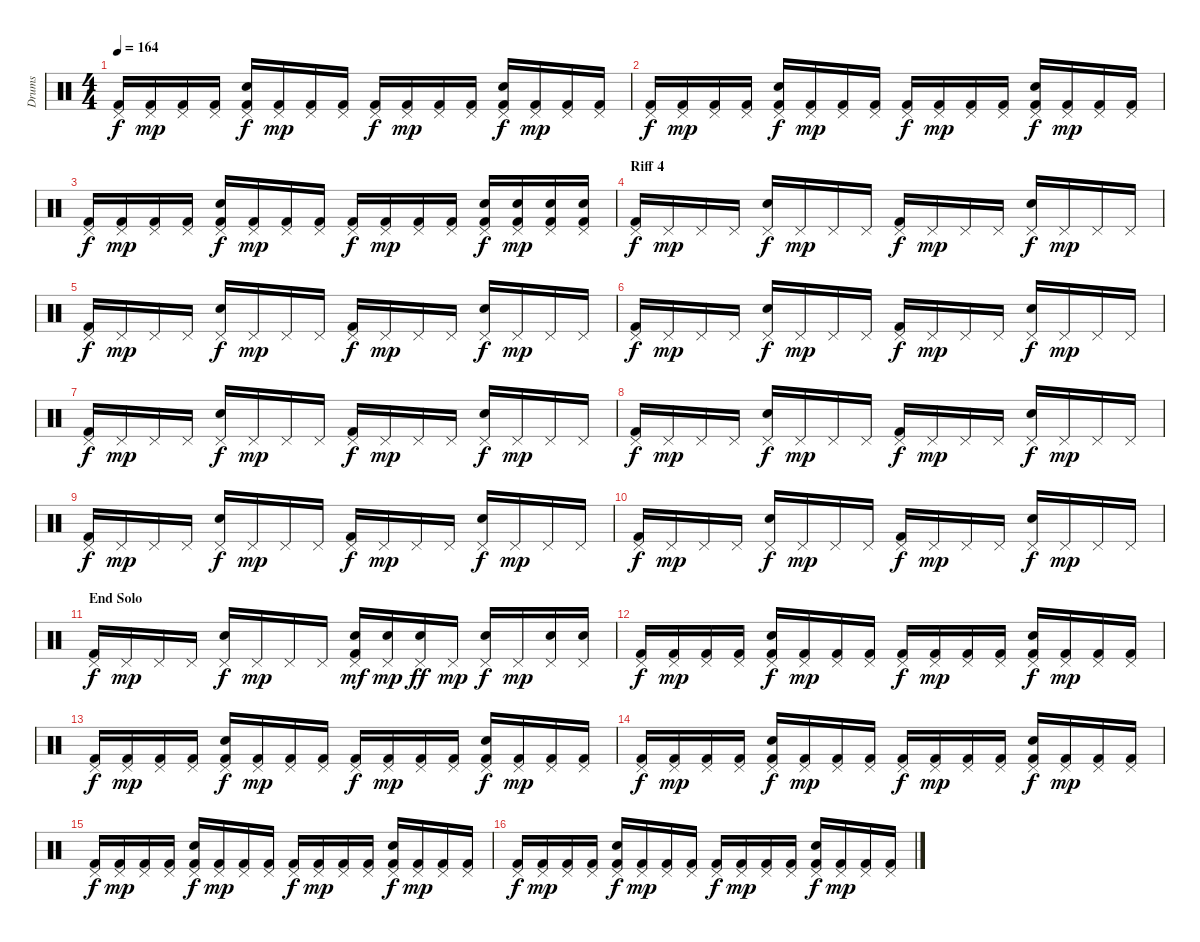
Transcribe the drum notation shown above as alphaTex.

\track ("Drums" "Drums") {instrument percussion}
\staff {score}
\articulation defaults
\ts (4 4)
\tempo 164
\clef neutral
\ks c
("Pedal Hi-Hat (hit)" "Kick (hit) 2").16{dy f} ("Pedal Hi-Hat (hit)" "Kick (hit) 2").16{dy mp} ("Pedal Hi-Hat (hit)" "Kick (hit) 2").16 ("Pedal Hi-Hat (hit)" "Kick (hit) 2").16 ("Pedal Hi-Hat (hit)" "Snare (hit) 2" "Kick (hit) 2").16{dy f} ("Pedal Hi-Hat (hit)" "Kick (hit) 2").16{dy mp} ("Pedal Hi-Hat (hit)" "Kick (hit) 2").16 ("Pedal Hi-Hat (hit)" "Kick (hit) 2").16 ("Pedal Hi-Hat (hit)" "Kick (hit) 2").16{dy f} ("Pedal Hi-Hat (hit)" "Kick (hit) 2").16{dy mp} ("Pedal Hi-Hat (hit)" "Kick (hit) 2").16 ("Pedal Hi-Hat (hit)" "Kick (hit) 2").16 ("Pedal Hi-Hat (hit)" "Snare (hit) 2" "Kick (hit) 2").16{dy f} ("Pedal Hi-Hat (hit)" "Kick (hit) 2").16{dy mp} ("Pedal Hi-Hat (hit)" "Kick (hit) 2").16 ("Pedal Hi-Hat (hit)" "Kick (hit) 2").16 |
("Pedal Hi-Hat (hit)" "Kick (hit) 2").16{dy f} ("Pedal Hi-Hat (hit)" "Kick (hit) 2").16{dy mp} ("Pedal Hi-Hat (hit)" "Kick (hit) 2").16 ("Pedal Hi-Hat (hit)" "Kick (hit) 2").16 ("Pedal Hi-Hat (hit)" "Snare (hit) 2" "Kick (hit) 2").16{dy f} ("Pedal Hi-Hat (hit)" "Kick (hit) 2").16{dy mp} ("Pedal Hi-Hat (hit)" "Kick (hit) 2").16 ("Pedal Hi-Hat (hit)" "Kick (hit) 2").16 ("Pedal Hi-Hat (hit)" "Kick (hit) 2").16{dy f} ("Pedal Hi-Hat (hit)" "Kick (hit) 2").16{dy mp} ("Pedal Hi-Hat (hit)" "Kick (hit) 2").16 ("Pedal Hi-Hat (hit)" "Kick (hit) 2").16 ("Pedal Hi-Hat (hit)" "Snare (hit) 2" "Kick (hit) 2").16{dy f} ("Pedal Hi-Hat (hit)" "Kick (hit) 2").16{dy mp} ("Pedal Hi-Hat (hit)" "Kick (hit) 2").16 ("Pedal Hi-Hat (hit)" "Kick (hit) 2").16 |
("Pedal Hi-Hat (hit)" "Kick (hit) 2").16{dy f} ("Pedal Hi-Hat (hit)" "Kick (hit) 2").16{dy mp} ("Pedal Hi-Hat (hit)" "Kick (hit) 2").16 ("Pedal Hi-Hat (hit)" "Kick (hit) 2").16 ("Pedal Hi-Hat (hit)" "Snare (hit) 2" "Kick (hit) 2").16{dy f} ("Pedal Hi-Hat (hit)" "Kick (hit) 2").16{dy mp} ("Pedal Hi-Hat (hit)" "Kick (hit) 2").16 ("Pedal Hi-Hat (hit)" "Kick (hit) 2").16 ("Pedal Hi-Hat (hit)" "Kick (hit) 2").16{dy f} ("Pedal Hi-Hat (hit)" "Kick (hit) 2").16{dy mp} ("Pedal Hi-Hat (hit)" "Kick (hit) 2").16 ("Pedal Hi-Hat (hit)" "Kick (hit) 2").16 ("Pedal Hi-Hat (hit)" "Snare (hit) 2" "Kick (hit) 2").16{dy f} ("Pedal Hi-Hat (hit)" "Snare (hit) 2" "Kick (hit) 2").16{dy mp} ("Pedal Hi-Hat (hit)" "Snare (hit) 2" "Kick (hit) 2").16 ("Pedal Hi-Hat (hit)" "Snare (hit) 2" "Kick (hit) 2").16 |
\section ("" "Riff 4")
("Pedal Hi-Hat (hit)" "Kick (hit) 2").16{dy f} "Pedal Hi-Hat (hit)".16{dy mp} "Pedal Hi-Hat (hit)".16 "Pedal Hi-Hat (hit)".16 ("Pedal Hi-Hat (hit)" "Snare (hit) 2").16{dy f} "Pedal Hi-Hat (hit)".16{dy mp} "Pedal Hi-Hat (hit)".16 "Pedal Hi-Hat (hit)".16 ("Pedal Hi-Hat (hit)" "Kick (hit) 2").16{dy f} "Pedal Hi-Hat (hit)".16{dy mp} "Pedal Hi-Hat (hit)".16 "Pedal Hi-Hat (hit)".16 ("Pedal Hi-Hat (hit)" "Snare (hit) 2").16{dy f} "Pedal Hi-Hat (hit)".16{dy mp} "Pedal Hi-Hat (hit)".16 "Pedal Hi-Hat (hit)".16 |
("Pedal Hi-Hat (hit)" "Kick (hit) 2").16{dy f} "Pedal Hi-Hat (hit)".16{dy mp} "Pedal Hi-Hat (hit)".16 "Pedal Hi-Hat (hit)".16 ("Pedal Hi-Hat (hit)" "Snare (hit) 2").16{dy f} "Pedal Hi-Hat (hit)".16{dy mp} "Pedal Hi-Hat (hit)".16 "Pedal Hi-Hat (hit)".16 ("Pedal Hi-Hat (hit)" "Kick (hit) 2").16{dy f} "Pedal Hi-Hat (hit)".16{dy mp} "Pedal Hi-Hat (hit)".16 "Pedal Hi-Hat (hit)".16 ("Pedal Hi-Hat (hit)" "Snare (hit) 2").16{dy f} "Pedal Hi-Hat (hit)".16{dy mp} "Pedal Hi-Hat (hit)".16 "Pedal Hi-Hat (hit)".16 |
("Pedal Hi-Hat (hit)" "Kick (hit) 2").16{dy f} "Pedal Hi-Hat (hit)".16{dy mp} "Pedal Hi-Hat (hit)".16 "Pedal Hi-Hat (hit)".16 ("Pedal Hi-Hat (hit)" "Snare (hit) 2").16{dy f} "Pedal Hi-Hat (hit)".16{dy mp} "Pedal Hi-Hat (hit)".16 "Pedal Hi-Hat (hit)".16 ("Pedal Hi-Hat (hit)" "Kick (hit) 2").16{dy f} "Pedal Hi-Hat (hit)".16{dy mp} "Pedal Hi-Hat (hit)".16 "Pedal Hi-Hat (hit)".16 ("Pedal Hi-Hat (hit)" "Snare (hit) 2").16{dy f} "Pedal Hi-Hat (hit)".16{dy mp} "Pedal Hi-Hat (hit)".16 "Pedal Hi-Hat (hit)".16 |
("Pedal Hi-Hat (hit)" "Kick (hit) 2").16{dy f} "Pedal Hi-Hat (hit)".16{dy mp} "Pedal Hi-Hat (hit)".16 "Pedal Hi-Hat (hit)".16 ("Pedal Hi-Hat (hit)" "Snare (hit) 2").16{dy f} "Pedal Hi-Hat (hit)".16{dy mp} "Pedal Hi-Hat (hit)".16 "Pedal Hi-Hat (hit)".16 ("Pedal Hi-Hat (hit)" "Kick (hit) 2").16{dy f} "Pedal Hi-Hat (hit)".16{dy mp} "Pedal Hi-Hat (hit)".16 "Pedal Hi-Hat (hit)".16 ("Pedal Hi-Hat (hit)" "Snare (hit) 2").16{dy f} "Pedal Hi-Hat (hit)".16{dy mp} "Pedal Hi-Hat (hit)".16 "Pedal Hi-Hat (hit)".16 |
("Pedal Hi-Hat (hit)" "Kick (hit) 2").16{dy f} "Pedal Hi-Hat (hit)".16{dy mp} "Pedal Hi-Hat (hit)".16 "Pedal Hi-Hat (hit)".16 ("Pedal Hi-Hat (hit)" "Snare (hit) 2").16{dy f} "Pedal Hi-Hat (hit)".16{dy mp} "Pedal Hi-Hat (hit)".16 "Pedal Hi-Hat (hit)".16 ("Pedal Hi-Hat (hit)" "Kick (hit) 2").16{dy f} "Pedal Hi-Hat (hit)".16{dy mp} "Pedal Hi-Hat (hit)".16 "Pedal Hi-Hat (hit)".16 ("Pedal Hi-Hat (hit)" "Snare (hit) 2").16{dy f} "Pedal Hi-Hat (hit)".16{dy mp} "Pedal Hi-Hat (hit)".16 "Pedal Hi-Hat (hit)".16 |
("Pedal Hi-Hat (hit)" "Kick (hit) 2").16{dy f} "Pedal Hi-Hat (hit)".16{dy mp} "Pedal Hi-Hat (hit)".16 "Pedal Hi-Hat (hit)".16 ("Pedal Hi-Hat (hit)" "Snare (hit) 2").16{dy f} "Pedal Hi-Hat (hit)".16{dy mp} "Pedal Hi-Hat (hit)".16 "Pedal Hi-Hat (hit)".16 ("Pedal Hi-Hat (hit)" "Kick (hit) 2").16{dy f} "Pedal Hi-Hat (hit)".16{dy mp} "Pedal Hi-Hat (hit)".16 "Pedal Hi-Hat (hit)".16 ("Pedal Hi-Hat (hit)" "Snare (hit) 2").16{dy f} "Pedal Hi-Hat (hit)".16{dy mp} "Pedal Hi-Hat (hit)".16 "Pedal Hi-Hat (hit)".16 |
("Pedal Hi-Hat (hit)" "Kick (hit) 2").16{dy f} "Pedal Hi-Hat (hit)".16{dy mp} "Pedal Hi-Hat (hit)".16 "Pedal Hi-Hat (hit)".16 ("Pedal Hi-Hat (hit)" "Snare (hit) 2").16{dy f} "Pedal Hi-Hat (hit)".16{dy mp} "Pedal Hi-Hat (hit)".16 "Pedal Hi-Hat (hit)".16 ("Pedal Hi-Hat (hit)" "Kick (hit) 2").16{dy f} "Pedal Hi-Hat (hit)".16{dy mp} "Pedal Hi-Hat (hit)".16 "Pedal Hi-Hat (hit)".16 ("Pedal Hi-Hat (hit)" "Snare (hit) 2").16{dy f} "Pedal Hi-Hat (hit)".16{dy mp} "Pedal Hi-Hat (hit)".16 "Pedal Hi-Hat (hit)".16 |
\section ("" "End Solo")
("Pedal Hi-Hat (hit)" "Kick (hit) 2").16{dy f} "Pedal Hi-Hat (hit)".16{dy mp} "Pedal Hi-Hat (hit)".16 "Pedal Hi-Hat (hit)".16 ("Pedal Hi-Hat (hit)" "Snare (hit) 2").16{dy f} "Pedal Hi-Hat (hit)".16{dy mp} "Pedal Hi-Hat (hit)".16 "Pedal Hi-Hat (hit)".16 ("Pedal Hi-Hat (hit)" "Snare (hit) 2" "Kick (hit) 2").16{dy mf} ("Pedal Hi-Hat (hit)" "Snare (hit) 2").16{dy mp} ("Pedal Hi-Hat (hit)" "Snare (hit) 2").16{dy ff} "Pedal Hi-Hat (hit)".16{dy mp} ("Pedal Hi-Hat (hit)" "Snare (hit) 2").16{dy f} "Pedal Hi-Hat (hit)".16{dy mp} ("Pedal Hi-Hat (hit)" "Snare (hit) 2").16 ("Pedal Hi-Hat (hit)" "Snare (hit) 2").16 |
("Pedal Hi-Hat (hit)" "Kick (hit) 2").16{dy f} ("Pedal Hi-Hat (hit)" "Kick (hit) 2").16{dy mp} ("Pedal Hi-Hat (hit)" "Kick (hit) 2").16 ("Pedal Hi-Hat (hit)" "Kick (hit) 2").16 ("Pedal Hi-Hat (hit)" "Snare (hit) 2" "Kick (hit) 2").16{dy f} ("Pedal Hi-Hat (hit)" "Kick (hit) 2").16{dy mp} ("Pedal Hi-Hat (hit)" "Kick (hit) 2").16 ("Pedal Hi-Hat (hit)" "Kick (hit) 2").16 ("Pedal Hi-Hat (hit)" "Kick (hit) 2").16{dy f} ("Pedal Hi-Hat (hit)" "Kick (hit) 2").16{dy mp} ("Pedal Hi-Hat (hit)" "Kick (hit) 2").16 ("Pedal Hi-Hat (hit)" "Kick (hit) 2").16 ("Pedal Hi-Hat (hit)" "Snare (hit) 2" "Kick (hit) 2").16{dy f} ("Pedal Hi-Hat (hit)" "Kick (hit) 2").16{dy mp} ("Pedal Hi-Hat (hit)" "Kick (hit) 2").16 ("Pedal Hi-Hat (hit)" "Kick (hit) 2").16 |
("Pedal Hi-Hat (hit)" "Kick (hit) 2").16{dy f} ("Pedal Hi-Hat (hit)" "Kick (hit) 2").16{dy mp} ("Pedal Hi-Hat (hit)" "Kick (hit) 2").16 ("Pedal Hi-Hat (hit)" "Kick (hit) 2").16 ("Pedal Hi-Hat (hit)" "Snare (hit) 2" "Kick (hit) 2").16{dy f} ("Pedal Hi-Hat (hit)" "Kick (hit) 2").16{dy mp} ("Pedal Hi-Hat (hit)" "Kick (hit) 2").16 ("Pedal Hi-Hat (hit)" "Kick (hit) 2").16 ("Pedal Hi-Hat (hit)" "Kick (hit) 2").16{dy f} ("Pedal Hi-Hat (hit)" "Kick (hit) 2").16{dy mp} ("Pedal Hi-Hat (hit)" "Kick (hit) 2").16 ("Pedal Hi-Hat (hit)" "Kick (hit) 2").16 ("Pedal Hi-Hat (hit)" "Snare (hit) 2" "Kick (hit) 2").16{dy f} ("Pedal Hi-Hat (hit)" "Kick (hit) 2").16{dy mp} ("Pedal Hi-Hat (hit)" "Kick (hit) 2").16 ("Pedal Hi-Hat (hit)" "Kick (hit) 2").16 |
("Pedal Hi-Hat (hit)" "Kick (hit) 2").16{dy f} ("Pedal Hi-Hat (hit)" "Kick (hit) 2").16{dy mp} ("Pedal Hi-Hat (hit)" "Kick (hit) 2").16 ("Pedal Hi-Hat (hit)" "Kick (hit) 2").16 ("Pedal Hi-Hat (hit)" "Snare (hit) 2" "Kick (hit) 2").16{dy f} ("Pedal Hi-Hat (hit)" "Kick (hit) 2").16{dy mp} ("Pedal Hi-Hat (hit)" "Kick (hit) 2").16 ("Pedal Hi-Hat (hit)" "Kick (hit) 2").16 ("Pedal Hi-Hat (hit)" "Kick (hit) 2").16{dy f} ("Pedal Hi-Hat (hit)" "Kick (hit) 2").16{dy mp} ("Pedal Hi-Hat (hit)" "Kick (hit) 2").16 ("Pedal Hi-Hat (hit)" "Kick (hit) 2").16 ("Pedal Hi-Hat (hit)" "Snare (hit) 2" "Kick (hit) 2").16{dy f} ("Pedal Hi-Hat (hit)" "Kick (hit) 2").16{dy mp} ("Pedal Hi-Hat (hit)" "Kick (hit) 2").16 ("Pedal Hi-Hat (hit)" "Kick (hit) 2").16 |
("Pedal Hi-Hat (hit)" "Kick (hit) 2").16{dy f} ("Pedal Hi-Hat (hit)" "Kick (hit) 2").16{dy mp} ("Pedal Hi-Hat (hit)" "Kick (hit) 2").16 ("Pedal Hi-Hat (hit)" "Kick (hit) 2").16 ("Pedal Hi-Hat (hit)" "Snare (hit) 2" "Kick (hit) 2").16{dy f} ("Pedal Hi-Hat (hit)" "Kick (hit) 2").16{dy mp} ("Pedal Hi-Hat (hit)" "Kick (hit) 2").16 ("Pedal Hi-Hat (hit)" "Kick (hit) 2").16 ("Pedal Hi-Hat (hit)" "Kick (hit) 2").16{dy f} ("Pedal Hi-Hat (hit)" "Kick (hit) 2").16{dy mp} ("Pedal Hi-Hat (hit)" "Kick (hit) 2").16 ("Pedal Hi-Hat (hit)" "Kick (hit) 2").16 ("Pedal Hi-Hat (hit)" "Snare (hit) 2" "Kick (hit) 2").16{dy f} ("Pedal Hi-Hat (hit)" "Kick (hit) 2").16{dy mp} ("Pedal Hi-Hat (hit)" "Kick (hit) 2").16 ("Pedal Hi-Hat (hit)" "Kick (hit) 2").16 |
("Pedal Hi-Hat (hit)" "Kick (hit) 2").16{dy f} ("Pedal Hi-Hat (hit)" "Kick (hit) 2").16{dy mp} ("Pedal Hi-Hat (hit)" "Kick (hit) 2").16 ("Pedal Hi-Hat (hit)" "Kick (hit) 2").16 ("Pedal Hi-Hat (hit)" "Snare (hit) 2" "Kick (hit) 2").16{dy f} ("Pedal Hi-Hat (hit)" "Kick (hit) 2").16{dy mp} ("Pedal Hi-Hat (hit)" "Kick (hit) 2").16 ("Pedal Hi-Hat (hit)" "Kick (hit) 2").16 ("Pedal Hi-Hat (hit)" "Kick (hit) 2").16{dy f} ("Pedal Hi-Hat (hit)" "Kick (hit) 2").16{dy mp} ("Pedal Hi-Hat (hit)" "Kick (hit) 2").16 ("Pedal Hi-Hat (hit)" "Kick (hit) 2").16 ("Pedal Hi-Hat (hit)" "Snare (hit) 2" "Kick (hit) 2").16{dy f} ("Pedal Hi-Hat (hit)" "Kick (hit) 2").16{dy mp} ("Pedal Hi-Hat (hit)" "Kick (hit) 2").16 ("Pedal Hi-Hat (hit)" "Kick (hit) 2").16
